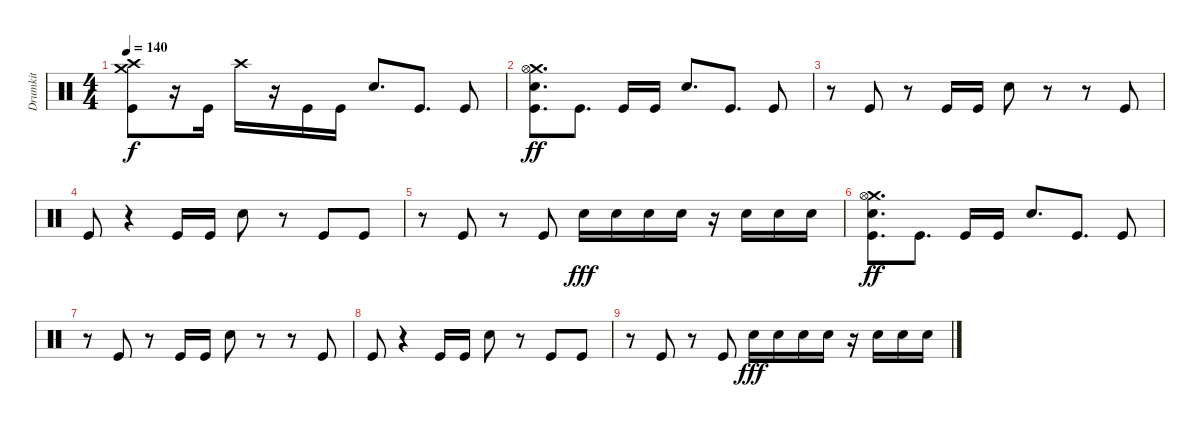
\track ("Drumkit" "Drumkit") {instrument percussion}
\staff {score}
\articulation defaults
\ts (4 4)
\tempo 140
\clef neutral
\ks c
("Crash high (hit)" "Crash medium (hit)" "Kick (hit)").8{dy f} r.16 "Kick (hit)".16 "Crash high (hit)".16 r.16 "Kick (hit)".16 "Kick (hit)".16 "Snare (hit) 2".8{d} "Kick (hit)".8{d} "Kick (hit)".8 |
("Snare (hit) 2" "Crash medium (hit)" "Hi-Hat (open)" "Kick (hit)").8{d dy ff} "Kick (hit)".8{d} "Kick (hit)".16 "Kick (hit)".16 "Snare (hit) 2".8{d} "Kick (hit)".8{d} "Kick (hit)".8 |
r.8 "Kick (hit)".8 r.8 "Kick (hit)".16 "Kick (hit)".16 "Snare (hit) 2".8 r.8 r.8 "Kick (hit)".8 |
"Kick (hit)".8 r.4 "Kick (hit)".16 "Kick (hit)".16 "Snare (hit) 2".8 r.8 "Kick (hit)".8 "Kick (hit)".8 |
r.8 "Kick (hit)".8 r.8 "Kick (hit)".8 "Snare (hit) 2".16{dy fff} "Snare (hit) 2".16 "Snare (hit) 2".16 "Snare (hit) 2".16 r.16 "Snare (hit) 2".16 "Snare (hit) 2".16 "Snare (hit) 2".16 |
("Snare (hit) 2" "Crash medium (hit)" "Hi-Hat (open)" "Kick (hit)").8{d dy ff} "Kick (hit)".8{d} "Kick (hit)".16 "Kick (hit)".16 "Snare (hit) 2".8{d} "Kick (hit)".8{d} "Kick (hit)".8 |
r.8 "Kick (hit)".8 r.8 "Kick (hit)".16 "Kick (hit)".16 "Snare (hit) 2".8 r.8 r.8 "Kick (hit)".8 |
"Kick (hit)".8 r.4 "Kick (hit)".16 "Kick (hit)".16 "Snare (hit) 2".8 r.8 "Kick (hit)".8 "Kick (hit)".8 |
r.8 "Kick (hit)".8 r.8 "Kick (hit)".8 "Snare (hit) 2".16{dy fff} "Snare (hit) 2".16 "Snare (hit) 2".16 "Snare (hit) 2".16 r.16 "Snare (hit) 2".16 "Snare (hit) 2".16 "Snare (hit) 2".16
